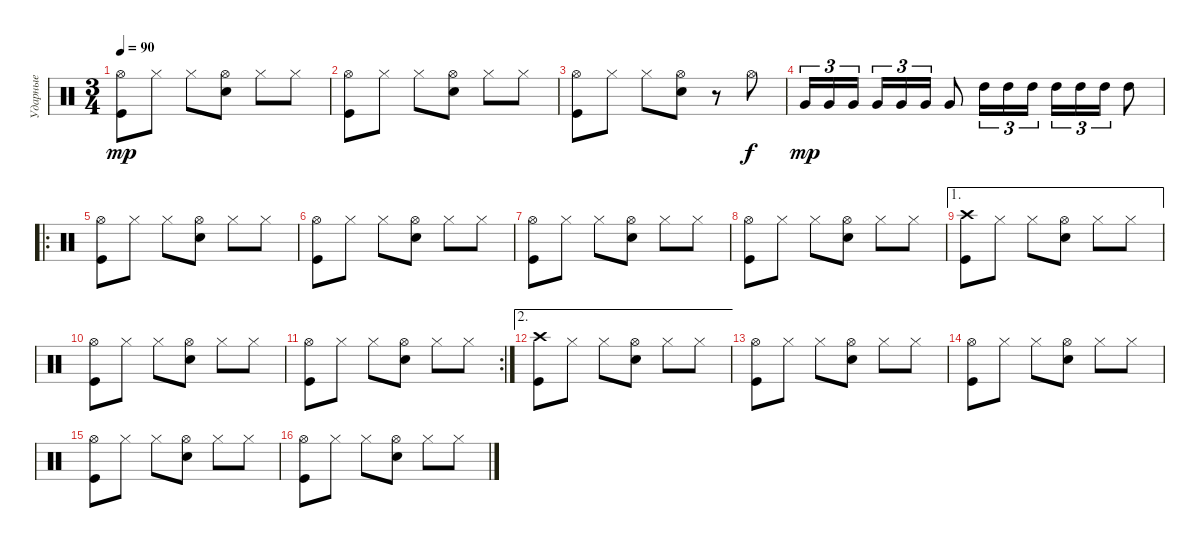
\track ("Ударные" "Ударные") {instrument percussion}
\staff {score}
\articulation defaults
\ts (3 4)
\tempo 90
\clef neutral
\ks c
("Kick (hit)" "Hi-Hat (open)").8{dy mp} "Hi-Hat (closed)".8 "Hi-Hat (closed)".8 ("Snare (hit) 2" "Hi-Hat (open)").8 "Hi-Hat (closed)".8 "Hi-Hat (closed)".8 |
("Kick (hit)" "Hi-Hat (open)").8 "Hi-Hat (closed)".8 "Hi-Hat (closed)".8 ("Snare (hit) 2" "Hi-Hat (open)").8 "Hi-Hat (closed)".8 "Hi-Hat (closed)".8 |
("Kick (hit)" "Hi-Hat (open)").8 "Hi-Hat (closed)".8 "Hi-Hat (closed)".8 ("Snare (hit) 2" "Hi-Hat (open)").8 r.8 "Hi-Hat (open)".8{dy f} |
"Very Low Tom (hit)".16{tu (3 2) dy mp} "Very Low Tom (hit)".16{tu (3 2)} "Very Low Tom (hit)".16{tu (3 2)} "Very Low Tom (hit)".16{tu (3 2)} "Very Low Tom (hit)".16{tu (3 2)} "Very Low Tom (hit)".16{tu (3 2)} "Very Low Tom (hit)".8 "High Tom (hit)".16{tu (3 2)} "High Tom (hit)".16{tu (3 2)} "High Tom (hit)".16{tu (3 2)} "High Tom (hit)".16{tu (3 2)} "High Tom (hit)".16{tu (3 2)} "High Tom (hit)".16{tu (3 2)} "High Tom (hit)".8 |
\ro
("Kick (hit)" "Hi-Hat (open)").8 "Hi-Hat (closed)".8 "Hi-Hat (closed)".8 ("Snare (hit) 2" "Hi-Hat (open)").8 "Hi-Hat (closed)".8 "Hi-Hat (closed)".8 |
("Kick (hit)" "Hi-Hat (open)").8 "Hi-Hat (closed)".8 "Hi-Hat (closed)".8 ("Snare (hit) 2" "Hi-Hat (open)").8 "Hi-Hat (closed)".8 "Hi-Hat (closed)".8 |
("Kick (hit)" "Hi-Hat (open)").8 "Hi-Hat (closed)".8 "Hi-Hat (closed)".8 ("Snare (hit) 2" "Hi-Hat (open)").8 "Hi-Hat (closed)".8 "Hi-Hat (closed)".8 |
("Kick (hit)" "Hi-Hat (open)").8 "Hi-Hat (closed)".8 "Hi-Hat (closed)".8 ("Snare (hit) 2" "Hi-Hat (open)").8 "Hi-Hat (closed)".8 "Hi-Hat (closed)".8 |
\ae 1
("Kick (hit)" "Crash high (hit)").8 "Hi-Hat (closed)".8 "Hi-Hat (closed)".8 ("Snare (hit) 2" "Hi-Hat (open)").8 "Hi-Hat (closed)".8 "Hi-Hat (closed)".8 |
("Kick (hit)" "Hi-Hat (open)").8 "Hi-Hat (closed)".8 "Hi-Hat (closed)".8 ("Snare (hit) 2" "Hi-Hat (open)").8 "Hi-Hat (closed)".8 "Hi-Hat (closed)".8 |
\rc 2
("Kick (hit)" "Hi-Hat (open)").8 "Hi-Hat (closed)".8 "Hi-Hat (closed)".8 ("Snare (hit) 2" "Hi-Hat (open)").8 "Hi-Hat (closed)".8 "Hi-Hat (closed)".8 |
\ae 2
("Kick (hit)" "Crash high (hit)").8 "Hi-Hat (closed)".8 "Hi-Hat (closed)".8 ("Snare (hit) 2" "Hi-Hat (open)").8 "Hi-Hat (closed)".8 "Hi-Hat (closed)".8 |
("Kick (hit)" "Hi-Hat (open)").8 "Hi-Hat (closed)".8 "Hi-Hat (closed)".8 ("Snare (hit) 2" "Hi-Hat (open)").8 "Hi-Hat (closed)".8 "Hi-Hat (closed)".8 |
("Kick (hit)" "Hi-Hat (open)").8 "Hi-Hat (closed)".8 "Hi-Hat (closed)".8 ("Snare (hit) 2" "Hi-Hat (open)").8 "Hi-Hat (closed)".8 "Hi-Hat (closed)".8 |
("Kick (hit)" "Hi-Hat (open)").8 "Hi-Hat (closed)".8 "Hi-Hat (closed)".8 ("Snare (hit) 2" "Hi-Hat (open)").8 "Hi-Hat (closed)".8 "Hi-Hat (closed)".8 |
("Kick (hit)" "Hi-Hat (open)").8 "Hi-Hat (closed)".8 "Hi-Hat (closed)".8 ("Snare (hit) 2" "Hi-Hat (open)").8 "Hi-Hat (closed)".8 "Hi-Hat (closed)".8
